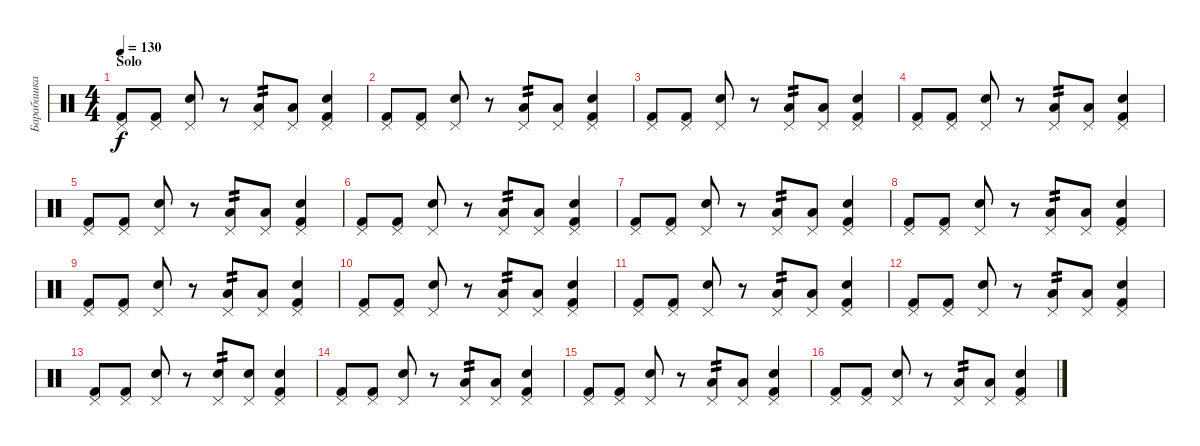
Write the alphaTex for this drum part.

\track ("Барабашка" "Барабашка") {instrument percussion}
\staff {score}
\articulation defaults
\ts (4 4)
\section ("" "Solo")
\tempo 130
\clef neutral
\ks c
("Pedal Hi-Hat (hit)" "Kick (hit) 2").8{dy f} ("Pedal Hi-Hat (hit)" "Kick (hit) 2").8 ("Snare (hit) 2" "Pedal Hi-Hat (hit)").8 r.8 ("Low Tom (hit)" "Pedal Hi-Hat (hit)").8{tp 2} ("Low Tom (hit)" "Pedal Hi-Hat (hit)").8 ("Snare (hit) 2" "Pedal Hi-Hat (hit)" "Kick (hit) 2").4 |
("Pedal Hi-Hat (hit)" "Kick (hit) 2").8 ("Pedal Hi-Hat (hit)" "Kick (hit) 2").8 ("Snare (hit) 2" "Pedal Hi-Hat (hit)").8 r.8 ("Low Tom (hit)" "Pedal Hi-Hat (hit)").8{tp 2} ("Low Tom (hit)" "Pedal Hi-Hat (hit)").8 ("Snare (hit) 2" "Pedal Hi-Hat (hit)" "Kick (hit) 2").4 |
("Pedal Hi-Hat (hit)" "Kick (hit) 2").8 ("Pedal Hi-Hat (hit)" "Kick (hit) 2").8 ("Snare (hit) 2" "Pedal Hi-Hat (hit)").8 r.8 ("Low Tom (hit)" "Pedal Hi-Hat (hit)").8{tp 2} ("Low Tom (hit)" "Pedal Hi-Hat (hit)").8 ("Snare (hit) 2" "Pedal Hi-Hat (hit)" "Kick (hit) 2").4 |
("Pedal Hi-Hat (hit)" "Kick (hit) 2").8 ("Pedal Hi-Hat (hit)" "Kick (hit) 2").8 ("Snare (hit) 2" "Pedal Hi-Hat (hit)").8 r.8 ("Low Tom (hit)" "Pedal Hi-Hat (hit)").8{tp 2} ("Low Tom (hit)" "Pedal Hi-Hat (hit)").8 ("Snare (hit) 2" "Pedal Hi-Hat (hit)" "Kick (hit) 2").4 |
("Pedal Hi-Hat (hit)" "Kick (hit) 2").8 ("Pedal Hi-Hat (hit)" "Kick (hit) 2").8 ("Snare (hit) 2" "Pedal Hi-Hat (hit)").8 r.8 ("Low Tom (hit)" "Pedal Hi-Hat (hit)").8{tp 2} ("Low Tom (hit)" "Pedal Hi-Hat (hit)").8 ("Snare (hit) 2" "Pedal Hi-Hat (hit)" "Kick (hit) 2").4 |
("Pedal Hi-Hat (hit)" "Kick (hit) 2").8 ("Pedal Hi-Hat (hit)" "Kick (hit) 2").8 ("Snare (hit) 2" "Pedal Hi-Hat (hit)").8 r.8 ("Low Tom (hit)" "Pedal Hi-Hat (hit)").8{tp 2} ("Low Tom (hit)" "Pedal Hi-Hat (hit)").8 ("Snare (hit) 2" "Pedal Hi-Hat (hit)" "Kick (hit) 2").4 |
("Pedal Hi-Hat (hit)" "Kick (hit) 2").8 ("Pedal Hi-Hat (hit)" "Kick (hit) 2").8 ("Snare (hit) 2" "Pedal Hi-Hat (hit)").8 r.8 ("Low Tom (hit)" "Pedal Hi-Hat (hit)").8{tp 2} ("Low Tom (hit)" "Pedal Hi-Hat (hit)").8 ("Snare (hit) 2" "Pedal Hi-Hat (hit)" "Kick (hit) 2").4 |
("Pedal Hi-Hat (hit)" "Kick (hit) 2").8 ("Pedal Hi-Hat (hit)" "Kick (hit) 2").8 ("Snare (hit) 2" "Pedal Hi-Hat (hit)").8 r.8 ("Low Tom (hit)" "Pedal Hi-Hat (hit)").8{tp 2} ("Low Tom (hit)" "Pedal Hi-Hat (hit)").8 ("Snare (hit) 2" "Pedal Hi-Hat (hit)" "Kick (hit) 2").4 |
("Pedal Hi-Hat (hit)" "Kick (hit) 2").8 ("Pedal Hi-Hat (hit)" "Kick (hit) 2").8 ("Snare (hit) 2" "Pedal Hi-Hat (hit)").8 r.8 ("Low Tom (hit)" "Pedal Hi-Hat (hit)").8{tp 2} ("Low Tom (hit)" "Pedal Hi-Hat (hit)").8 ("Snare (hit) 2" "Pedal Hi-Hat (hit)" "Kick (hit) 2").4 |
("Pedal Hi-Hat (hit)" "Kick (hit) 2").8 ("Pedal Hi-Hat (hit)" "Kick (hit) 2").8 ("Snare (hit) 2" "Pedal Hi-Hat (hit)").8 r.8 ("Low Tom (hit)" "Pedal Hi-Hat (hit)").8{tp 2} ("Low Tom (hit)" "Pedal Hi-Hat (hit)").8 ("Snare (hit) 2" "Pedal Hi-Hat (hit)" "Kick (hit) 2").4 |
("Pedal Hi-Hat (hit)" "Kick (hit) 2").8 ("Pedal Hi-Hat (hit)" "Kick (hit) 2").8 ("Snare (hit) 2" "Pedal Hi-Hat (hit)").8 r.8 ("Low Tom (hit)" "Pedal Hi-Hat (hit)").8{tp 2} ("Low Tom (hit)" "Pedal Hi-Hat (hit)").8 ("Snare (hit) 2" "Pedal Hi-Hat (hit)" "Kick (hit) 2").4 |
("Pedal Hi-Hat (hit)" "Kick (hit) 2").8 ("Pedal Hi-Hat (hit)" "Kick (hit) 2").8 ("Snare (hit) 2" "Pedal Hi-Hat (hit)").8 r.8 ("Low Tom (hit)" "Pedal Hi-Hat (hit)").8{tp 2} ("Low Tom (hit)" "Pedal Hi-Hat (hit)").8 ("Snare (hit) 2" "Pedal Hi-Hat (hit)" "Kick (hit) 2").4 |
("Pedal Hi-Hat (hit)" "Kick (hit) 2").8 ("Pedal Hi-Hat (hit)" "Kick (hit) 2").8 ("Snare (hit) 2" "Pedal Hi-Hat (hit)").8 r.8 ("Snare (hit) 2" "Pedal Hi-Hat (hit)").8{tp 2} ("Snare (hit) 2" "Pedal Hi-Hat (hit)").8 ("Snare (hit) 2" "Pedal Hi-Hat (hit)" "Kick (hit) 2").4 |
("Pedal Hi-Hat (hit)" "Kick (hit) 2").8 ("Pedal Hi-Hat (hit)" "Kick (hit) 2").8 ("Snare (hit) 2" "Pedal Hi-Hat (hit)").8 r.8 ("Low Tom (hit)" "Pedal Hi-Hat (hit)").8{tp 2} ("Low Tom (hit)" "Pedal Hi-Hat (hit)").8 ("Snare (hit) 2" "Pedal Hi-Hat (hit)" "Kick (hit) 2").4 |
("Pedal Hi-Hat (hit)" "Kick (hit) 2").8 ("Pedal Hi-Hat (hit)" "Kick (hit) 2").8 ("Snare (hit) 2" "Pedal Hi-Hat (hit)").8 r.8 ("Low Tom (hit)" "Pedal Hi-Hat (hit)").8{tp 2} ("Low Tom (hit)" "Pedal Hi-Hat (hit)").8 ("Snare (hit) 2" "Pedal Hi-Hat (hit)" "Kick (hit) 2").4 |
("Pedal Hi-Hat (hit)" "Kick (hit) 2").8 ("Pedal Hi-Hat (hit)" "Kick (hit) 2").8 ("Snare (hit) 2" "Pedal Hi-Hat (hit)").8 r.8 ("Low Tom (hit)" "Pedal Hi-Hat (hit)").8{tp 2} ("Low Tom (hit)" "Pedal Hi-Hat (hit)").8 ("Snare (hit) 2" "Pedal Hi-Hat (hit)" "Kick (hit) 2").4
